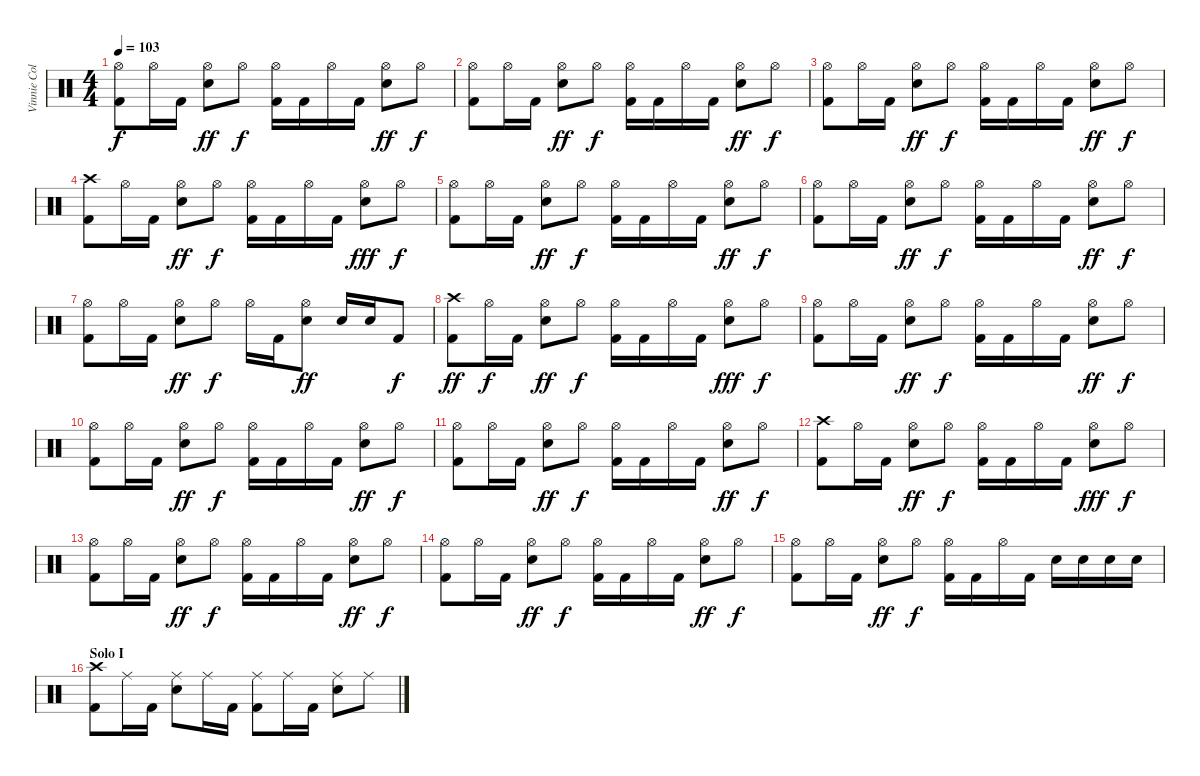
\track ("Vinnie Colaiuta" "Vinnie Col") {instrument percussion}
\staff {score}
\articulation defaults
\ts (4 4)
\tempo 103
\clef neutral
\ks c
("Hi-Hat (open)" "Kick (hit) 2").8{dy f} "Hi-Hat (open)".16 "Kick (hit) 2".16 ("Hi-Hat (open)" "Electric Snare (hit)").8{dy ff} "Hi-Hat (open)".8{dy f} ("Hi-Hat (open)" "Kick (hit) 2").16 "Kick (hit) 2".16 "Hi-Hat (open)".16 "Kick (hit) 2".16 ("Hi-Hat (open)" "Electric Snare (hit)").8{dy ff} "Hi-Hat (open)".8{dy f} |
("Hi-Hat (open)" "Kick (hit) 2").8 "Hi-Hat (open)".16 "Kick (hit) 2".16 ("Hi-Hat (open)" "Electric Snare (hit)").8{dy ff} "Hi-Hat (open)".8{dy f} ("Hi-Hat (open)" "Kick (hit) 2").16 "Kick (hit) 2".16 "Hi-Hat (open)".16 "Kick (hit) 2".16 ("Hi-Hat (open)" "Electric Snare (hit)").8{dy ff} "Hi-Hat (open)".8{dy f} |
("Hi-Hat (open)" "Kick (hit) 2").8 "Hi-Hat (open)".16 "Kick (hit) 2".16 ("Hi-Hat (open)" "Electric Snare (hit)").8{dy ff} "Hi-Hat (open)".8{dy f} ("Hi-Hat (open)" "Kick (hit) 2").16 "Kick (hit) 2".16 "Hi-Hat (open)".16 "Kick (hit) 2".16 ("Hi-Hat (open)" "Electric Snare (hit)").8{dy ff} "Hi-Hat (open)".8{dy f} |
("Crash high (hit)" "Kick (hit) 2").8 "Hi-Hat (open)".16 "Kick (hit) 2".16 ("Hi-Hat (open)" "Electric Snare (hit)").8{dy ff} "Hi-Hat (open)".8{dy f} ("Hi-Hat (open)" "Kick (hit) 2").16 "Kick (hit) 2".16 "Hi-Hat (open)".16 "Kick (hit) 2".16 ("Hi-Hat (open)" "Electric Snare (hit)").8{dy fff} "Hi-Hat (open)".8{dy f} |
("Hi-Hat (open)" "Kick (hit) 2").8 "Hi-Hat (open)".16 "Kick (hit) 2".16 ("Hi-Hat (open)" "Electric Snare (hit)").8{dy ff} "Hi-Hat (open)".8{dy f} ("Hi-Hat (open)" "Kick (hit) 2").16 "Kick (hit) 2".16 "Hi-Hat (open)".16 "Kick (hit) 2".16 ("Hi-Hat (open)" "Electric Snare (hit)").8{dy ff} "Hi-Hat (open)".8{dy f} |
("Hi-Hat (open)" "Kick (hit) 2").8 "Hi-Hat (open)".16 "Kick (hit) 2".16 ("Hi-Hat (open)" "Electric Snare (hit)").8{dy ff} "Hi-Hat (open)".8{dy f} ("Hi-Hat (open)" "Kick (hit) 2").16 "Kick (hit) 2".16 "Hi-Hat (open)".16 "Kick (hit) 2".16 ("Hi-Hat (open)" "Electric Snare (hit)").8{dy ff} "Hi-Hat (open)".8{dy f} |
("Hi-Hat (open)" "Kick (hit) 2").8 "Hi-Hat (open)".16 "Kick (hit) 2".16 ("Hi-Hat (open)" "Electric Snare (hit)").8{dy ff} "Hi-Hat (open)".8{dy f} "Hi-Hat (open)".16 "Kick (hit) 2".16 ("Hi-Hat (open)" "Electric Snare (hit)").8{dy ff} "Electric Snare (hit)".16 "Electric Snare (hit)".16 "Kick (hit) 2".8{dy f} |
("Crash high (hit)" "Kick (hit) 2").8{dy ff} "Hi-Hat (open)".16{dy f} "Kick (hit) 2".16 ("Hi-Hat (open)" "Electric Snare (hit)").8{dy ff} "Hi-Hat (open)".8{dy f} ("Hi-Hat (open)" "Kick (hit) 2").16 "Kick (hit) 2".16 "Hi-Hat (open)".16 "Kick (hit) 2".16 ("Hi-Hat (open)" "Electric Snare (hit)").8{dy fff} "Hi-Hat (open)".8{dy f} |
("Hi-Hat (open)" "Kick (hit) 2").8 "Hi-Hat (open)".16 "Kick (hit) 2".16 ("Hi-Hat (open)" "Electric Snare (hit)").8{dy ff} "Hi-Hat (open)".8{dy f} ("Hi-Hat (open)" "Kick (hit) 2").16 "Kick (hit) 2".16 "Hi-Hat (open)".16 "Kick (hit) 2".16 ("Hi-Hat (open)" "Electric Snare (hit)").8{dy ff} "Hi-Hat (open)".8{dy f} |
("Hi-Hat (open)" "Kick (hit) 2").8 "Hi-Hat (open)".16 "Kick (hit) 2".16 ("Hi-Hat (open)" "Electric Snare (hit)").8{dy ff} "Hi-Hat (open)".8{dy f} ("Hi-Hat (open)" "Kick (hit) 2").16 "Kick (hit) 2".16 "Hi-Hat (open)".16 "Kick (hit) 2".16 ("Hi-Hat (open)" "Electric Snare (hit)").8{dy ff} "Hi-Hat (open)".8{dy f} |
("Hi-Hat (open)" "Kick (hit) 2").8 "Hi-Hat (open)".16 "Kick (hit) 2".16 ("Hi-Hat (open)" "Electric Snare (hit)").8{dy ff} "Hi-Hat (open)".8{dy f} ("Hi-Hat (open)" "Kick (hit) 2").16 "Kick (hit) 2".16 "Hi-Hat (open)".16 "Kick (hit) 2".16 ("Hi-Hat (open)" "Electric Snare (hit)").8{dy ff} "Hi-Hat (open)".8{dy f} |
("Crash high (hit)" "Kick (hit) 2").8 "Hi-Hat (open)".16 "Kick (hit) 2".16 ("Hi-Hat (open)" "Electric Snare (hit)").8{dy ff} "Hi-Hat (open)".8{dy f} ("Hi-Hat (open)" "Kick (hit) 2").16 "Kick (hit) 2".16 "Hi-Hat (open)".16 "Kick (hit) 2".16 ("Hi-Hat (open)" "Electric Snare (hit)").8{dy fff} "Hi-Hat (open)".8{dy f} |
("Hi-Hat (open)" "Kick (hit) 2").8 "Hi-Hat (open)".16 "Kick (hit) 2".16 ("Hi-Hat (open)" "Electric Snare (hit)").8{dy ff} "Hi-Hat (open)".8{dy f} ("Hi-Hat (open)" "Kick (hit) 2").16 "Kick (hit) 2".16 "Hi-Hat (open)".16 "Kick (hit) 2".16 ("Hi-Hat (open)" "Electric Snare (hit)").8{dy ff} "Hi-Hat (open)".8{dy f} |
("Hi-Hat (open)" "Kick (hit) 2").8 "Hi-Hat (open)".16 "Kick (hit) 2".16 ("Hi-Hat (open)" "Electric Snare (hit)").8{dy ff} "Hi-Hat (open)".8{dy f} ("Hi-Hat (open)" "Kick (hit) 2").16 "Kick (hit) 2".16 "Hi-Hat (open)".16 "Kick (hit) 2".16 ("Hi-Hat (open)" "Electric Snare (hit)").8{dy ff} "Hi-Hat (open)".8{dy f} |
("Hi-Hat (open)" "Kick (hit) 2").8 "Hi-Hat (open)".16 "Kick (hit) 2".16 ("Hi-Hat (open)" "Electric Snare (hit)").8{dy ff} "Hi-Hat (open)".8{dy f} ("Hi-Hat (open)" "Kick (hit) 2").16 "Kick (hit) 2".16 "Hi-Hat (open)".16 "Kick (hit) 2".16 "Electric Snare (hit)".16 "Electric Snare (hit)".16 "Electric Snare (hit)".16 "Electric Snare (hit)".16 |
\section ("" "Solo I")
("Crash high (hit)" "Kick (hit) 2").8 "Ride (middle)".16 "Kick (hit) 2".16 ("Ride (middle)" "Electric Snare (hit)").8 "Ride (middle)".16 "Kick (hit) 2".16 ("Ride (middle)" "Kick (hit) 2").8 "Ride (middle)".16 "Kick (hit) 2".16 ("Ride (middle)" "Electric Snare (hit)").8 "Ride (middle)".8
